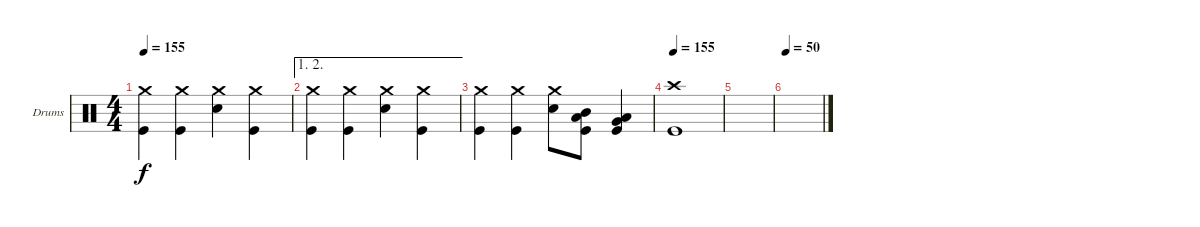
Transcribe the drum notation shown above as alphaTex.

\bracketExtendMode groupsimilarinstruments
\firstSystemTrackNameOrientation horizontal
\otherSystemsTrackNameOrientation horizontal
\track ("Drumkit" "Drums") {instrument percussion}
\staff {score}
\articulation defaults
\ts (4 4)
\tempo 155
\clef neutral
\ks c
("Crash medium (hit)" "Kick (hit)").4{dy f} ("Crash medium (hit)" "Kick (hit)").4 ("Crash medium (hit)" "Snare (hit) 2").4 ("Crash medium (hit)" "Kick (hit)").4 |
\ae (1 2)
("Crash medium (hit)" "Kick (hit)").4 ("Crash medium (hit)" "Kick (hit)").4 ("Crash medium (hit)" "Snare (hit) 2").4 ("Crash medium (hit)" "Kick (hit)").4 |
("Crash medium (hit)" "Kick (hit)").4 ("Crash medium (hit)" "Kick (hit)").4 ("Crash medium (hit)" "Snare (hit) 2").8 ("Kick (hit)" "Low Tom (hit)" "Mid Tom (hit)").8 ("Kick (hit)" "Very Low Tom (hit)" "Low Tom (hit)").4 |
\tempo 155
("Kick (hit)" "Crash high (hit)").1 |
|
\tempo 50
